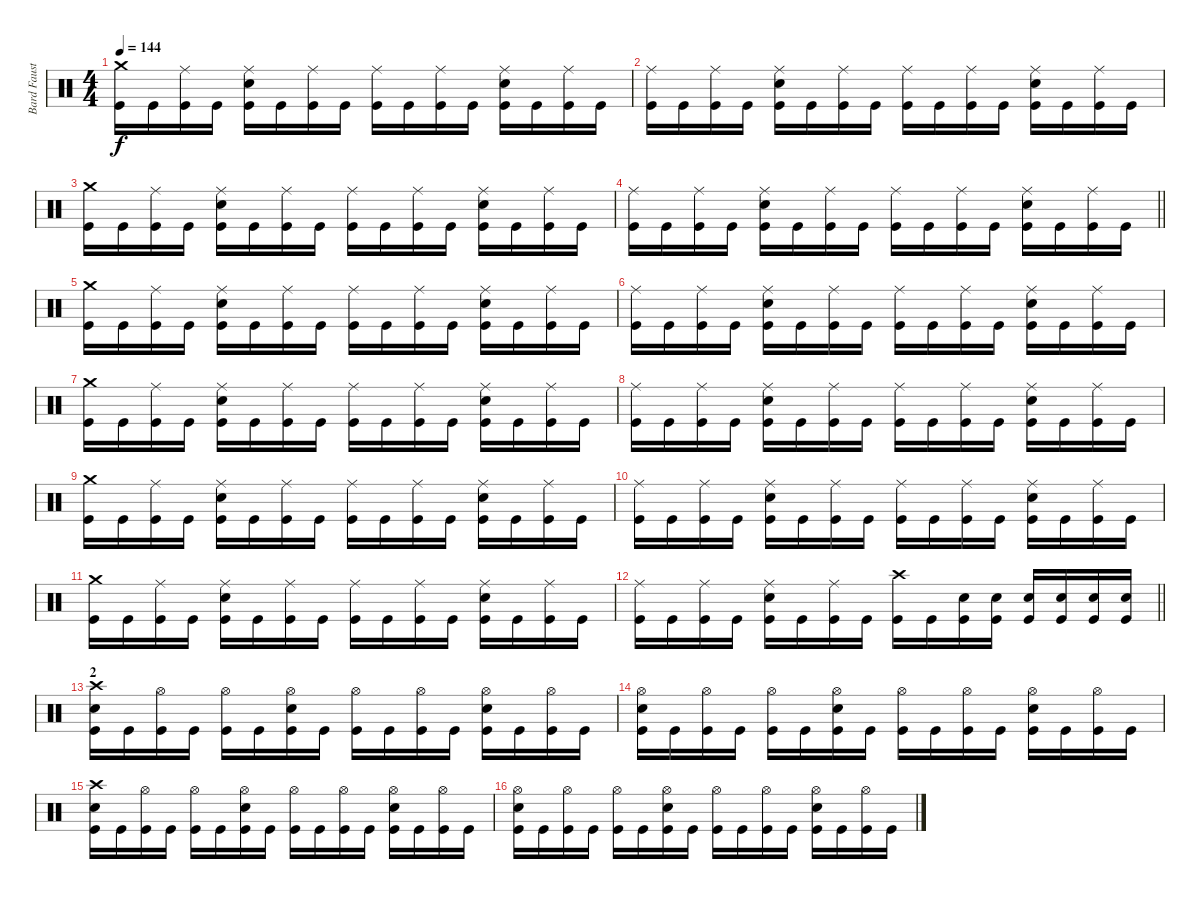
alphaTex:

\track ("Bard Faust" "Bard Faust") {instrument percussion}
\staff {score}
\articulation defaults
\ts (4 4)
\tempo 144
\clef neutral
\ks c
("Crash medium (hit)" "Kick (hit)").16{dy f} "Kick (hit)".16 ("Ride (middle)" "Kick (hit)").16 "Kick (hit)".16 ("Ride (middle)" "Snare (hit) 2" "Kick (hit)").16 "Kick (hit)".16 ("Ride (middle)" "Kick (hit)").16 "Kick (hit)".16 ("Ride (middle)" "Kick (hit)").16 "Kick (hit)".16 ("Ride (middle)" "Kick (hit)").16 "Kick (hit)".16 ("Ride (middle)" "Snare (hit) 2" "Kick (hit)").16 "Kick (hit)".16 ("Ride (middle)" "Kick (hit)").16 "Kick (hit)".16 |
("Ride (middle)" "Kick (hit)").16 "Kick (hit)".16 ("Ride (middle)" "Kick (hit)").16 "Kick (hit)".16 ("Ride (middle)" "Snare (hit) 2" "Kick (hit)").16 "Kick (hit)".16 ("Ride (middle)" "Kick (hit)").16 "Kick (hit)".16 ("Ride (middle)" "Kick (hit)").16 "Kick (hit)".16 ("Ride (middle)" "Kick (hit)").16 "Kick (hit)".16 ("Ride (middle)" "Snare (hit) 2" "Kick (hit)").16 "Kick (hit)".16 ("Ride (middle)" "Kick (hit)").16 "Kick (hit)".16 |
("Crash medium (hit)" "Kick (hit)").16 "Kick (hit)".16 ("Ride (middle)" "Kick (hit)").16 "Kick (hit)".16 ("Ride (middle)" "Snare (hit) 2" "Kick (hit)").16 "Kick (hit)".16 ("Ride (middle)" "Kick (hit)").16 "Kick (hit)".16 ("Ride (middle)" "Kick (hit)").16 "Kick (hit)".16 ("Ride (middle)" "Kick (hit)").16 "Kick (hit)".16 ("Ride (middle)" "Snare (hit) 2" "Kick (hit)").16 "Kick (hit)".16 ("Ride (middle)" "Kick (hit)").16 "Kick (hit)".16 |
\barLineRight lightlight
("Ride (middle)" "Kick (hit)").16 "Kick (hit)".16 ("Ride (middle)" "Kick (hit)").16 "Kick (hit)".16 ("Ride (middle)" "Snare (hit) 2" "Kick (hit)").16 "Kick (hit)".16 ("Ride (middle)" "Kick (hit)").16 "Kick (hit)".16 ("Ride (middle)" "Kick (hit)").16 "Kick (hit)".16 ("Ride (middle)" "Kick (hit)").16 "Kick (hit)".16 ("Ride (middle)" "Snare (hit) 2" "Kick (hit)").16 "Kick (hit)".16 ("Ride (middle)" "Kick (hit)").16 "Kick (hit)".16 |
\section ("" "")
("Crash medium (hit)" "Kick (hit)").16 "Kick (hit)".16 ("Ride (middle)" "Kick (hit)").16 "Kick (hit)".16 ("Ride (middle)" "Snare (hit) 2" "Kick (hit)").16 "Kick (hit)".16 ("Ride (middle)" "Kick (hit)").16 "Kick (hit)".16 ("Ride (middle)" "Kick (hit)").16 "Kick (hit)".16 ("Ride (middle)" "Kick (hit)").16 "Kick (hit)".16 ("Ride (middle)" "Snare (hit) 2" "Kick (hit)").16 "Kick (hit)".16 ("Ride (middle)" "Kick (hit)").16 "Kick (hit)".16 |
("Ride (middle)" "Kick (hit)").16 "Kick (hit)".16 ("Ride (middle)" "Kick (hit)").16 "Kick (hit)".16 ("Ride (middle)" "Snare (hit) 2" "Kick (hit)").16 "Kick (hit)".16 ("Ride (middle)" "Kick (hit)").16 "Kick (hit)".16 ("Ride (middle)" "Kick (hit)").16 "Kick (hit)".16 ("Ride (middle)" "Kick (hit)").16 "Kick (hit)".16 ("Ride (middle)" "Snare (hit) 2" "Kick (hit)").16 "Kick (hit)".16 ("Ride (middle)" "Kick (hit)").16 "Kick (hit)".16 |
("Crash medium (hit)" "Kick (hit)").16 "Kick (hit)".16 ("Ride (middle)" "Kick (hit)").16 "Kick (hit)".16 ("Ride (middle)" "Snare (hit) 2" "Kick (hit)").16 "Kick (hit)".16 ("Ride (middle)" "Kick (hit)").16 "Kick (hit)".16 ("Ride (middle)" "Kick (hit)").16 "Kick (hit)".16 ("Ride (middle)" "Kick (hit)").16 "Kick (hit)".16 ("Ride (middle)" "Snare (hit) 2" "Kick (hit)").16 "Kick (hit)".16 ("Ride (middle)" "Kick (hit)").16 "Kick (hit)".16 |
("Ride (middle)" "Kick (hit)").16 "Kick (hit)".16 ("Ride (middle)" "Kick (hit)").16 "Kick (hit)".16 ("Ride (middle)" "Snare (hit) 2" "Kick (hit)").16 "Kick (hit)".16 ("Ride (middle)" "Kick (hit)").16 "Kick (hit)".16 ("Ride (middle)" "Kick (hit)").16 "Kick (hit)".16 ("Ride (middle)" "Kick (hit)").16 "Kick (hit)".16 ("Ride (middle)" "Snare (hit) 2" "Kick (hit)").16 "Kick (hit)".16 ("Ride (middle)" "Kick (hit)").16 "Kick (hit)".16 |
("Crash medium (hit)" "Kick (hit)").16 "Kick (hit)".16 ("Ride (middle)" "Kick (hit)").16 "Kick (hit)".16 ("Ride (middle)" "Snare (hit) 2" "Kick (hit)").16 "Kick (hit)".16 ("Ride (middle)" "Kick (hit)").16 "Kick (hit)".16 ("Ride (middle)" "Kick (hit)").16 "Kick (hit)".16 ("Ride (middle)" "Kick (hit)").16 "Kick (hit)".16 ("Ride (middle)" "Snare (hit) 2" "Kick (hit)").16 "Kick (hit)".16 ("Ride (middle)" "Kick (hit)").16 "Kick (hit)".16 |
("Ride (middle)" "Kick (hit)").16 "Kick (hit)".16 ("Ride (middle)" "Kick (hit)").16 "Kick (hit)".16 ("Ride (middle)" "Snare (hit) 2" "Kick (hit)").16 "Kick (hit)".16 ("Ride (middle)" "Kick (hit)").16 "Kick (hit)".16 ("Ride (middle)" "Kick (hit)").16 "Kick (hit)".16 ("Ride (middle)" "Kick (hit)").16 "Kick (hit)".16 ("Ride (middle)" "Snare (hit) 2" "Kick (hit)").16 "Kick (hit)".16 ("Ride (middle)" "Kick (hit)").16 "Kick (hit)".16 |
("Crash medium (hit)" "Kick (hit)").16 "Kick (hit)".16 ("Ride (middle)" "Kick (hit)").16 "Kick (hit)".16 ("Ride (middle)" "Snare (hit) 2" "Kick (hit)").16 "Kick (hit)".16 ("Ride (middle)" "Kick (hit)").16 "Kick (hit)".16 ("Ride (middle)" "Kick (hit)").16 "Kick (hit)".16 ("Ride (middle)" "Kick (hit)").16 "Kick (hit)".16 ("Ride (middle)" "Snare (hit) 2" "Kick (hit)").16 "Kick (hit)".16 ("Ride (middle)" "Kick (hit)").16 "Kick (hit)".16 |
\barLineRight lightlight
("Ride (middle)" "Kick (hit)").16 "Kick (hit)".16 ("Ride (middle)" "Kick (hit)").16 "Kick (hit)".16 ("Ride (middle)" "Snare (hit) 2" "Kick (hit)").16 "Kick (hit)".16 ("Ride (middle)" "Kick (hit)").16 "Kick (hit)".16 ("Crash high (hit)" "Kick (hit)").16 "Kick (hit)".16 ("Snare (hit) 2" "Kick (hit)").16 ("Snare (hit) 2" "Kick (hit)").16 ("Snare (hit) 2" "Kick (hit)").16 ("Snare (hit) 2" "Kick (hit)").16 ("Snare (hit) 2" "Kick (hit)").16 ("Snare (hit) 2" "Kick (hit)").16 |
\section ("" "2")
("Crash high (hit)" "Snare (hit) 2" "Kick (hit)").16 "Kick (hit)".16 ("Hi-Hat (open)" "Kick (hit)").16 "Kick (hit)".16 ("Hi-Hat (open)" "Kick (hit)").16 "Kick (hit)".16 ("Hi-Hat (open)" "Snare (hit) 2" "Kick (hit)").16 "Kick (hit)".16 ("Hi-Hat (open)" "Kick (hit)").16 "Kick (hit)".16 ("Hi-Hat (open)" "Kick (hit)").16 "Kick (hit)".16 ("Hi-Hat (open)" "Snare (hit) 2" "Kick (hit)").16 "Kick (hit)".16 ("Hi-Hat (open)" "Kick (hit)").16 "Kick (hit)".16 |
("Hi-Hat (open)" "Snare (hit) 2" "Kick (hit)").16 "Kick (hit)".16 ("Hi-Hat (open)" "Kick (hit)").16 "Kick (hit)".16 ("Hi-Hat (open)" "Kick (hit)").16 "Kick (hit)".16 ("Hi-Hat (open)" "Snare (hit) 2" "Kick (hit)").16 "Kick (hit)".16 ("Hi-Hat (open)" "Kick (hit)").16 "Kick (hit)".16 ("Hi-Hat (open)" "Kick (hit)").16 "Kick (hit)".16 ("Hi-Hat (open)" "Snare (hit) 2" "Kick (hit)").16 "Kick (hit)".16 ("Hi-Hat (open)" "Kick (hit)").16 "Kick (hit)".16 |
("Crash high (hit)" "Snare (hit) 2" "Kick (hit)").16 "Kick (hit)".16 ("Hi-Hat (open)" "Kick (hit)").16 "Kick (hit)".16 ("Hi-Hat (open)" "Kick (hit)").16 "Kick (hit)".16 ("Hi-Hat (open)" "Snare (hit) 2" "Kick (hit)").16 "Kick (hit)".16 ("Hi-Hat (open)" "Kick (hit)").16 "Kick (hit)".16 ("Hi-Hat (open)" "Kick (hit)").16 "Kick (hit)".16 ("Hi-Hat (open)" "Snare (hit) 2" "Kick (hit)").16 "Kick (hit)".16 ("Hi-Hat (open)" "Kick (hit)").16 "Kick (hit)".16 |
("Hi-Hat (open)" "Snare (hit) 2" "Kick (hit)").16 "Kick (hit)".16 ("Hi-Hat (open)" "Kick (hit)").16 "Kick (hit)".16 ("Hi-Hat (open)" "Kick (hit)").16 "Kick (hit)".16 ("Hi-Hat (open)" "Snare (hit) 2" "Kick (hit)").16 "Kick (hit)".16 ("Hi-Hat (open)" "Kick (hit)").16 "Kick (hit)".16 ("Hi-Hat (open)" "Kick (hit)").16 "Kick (hit)".16 ("Hi-Hat (open)" "Snare (hit) 2" "Kick (hit)").16 "Kick (hit)".16 ("Hi-Hat (open)" "Kick (hit)").16 "Kick (hit)".16
